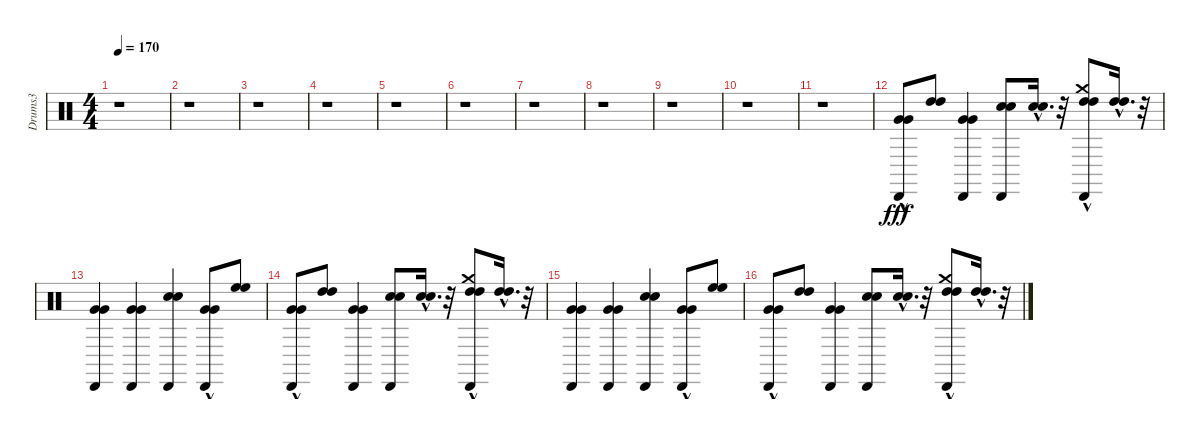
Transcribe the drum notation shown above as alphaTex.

\track ("Drums3" "Drums3") {instrument percussion}
\staff {score}
\articulation defaults
\ts (4 4)
\tempo 170
\clef neutral
\ks c
r.1{dy fff} |
r.1 |
r.1 |
r.1 |
r.1 |
r.1 |
r.1 |
r.1 |
r.1 |
r.1 |
r.1 |
("Very Low Tom (hit)"{hac} "Very Low Tom (hit)"{hac} "Cabasa (hit)").8 ("High Tom (hit)" "High Tom (hit)").8 ("Very Low Tom (hit)" "Very Low Tom (hit)" "Cabasa (hit)").4 ("Electric Snare (hit)" "Electric Snare (hit)" "Cabasa (hit)").8 ("Electric Snare (hit)"{hac} "Electric Snare (hit)"{hac}).16{d} r.32 ("High Tom (hit)"{hac} "High Tom (hit)"{hac} "Crash medium (hit)" "Cabasa (hit)").8 ("High Tom (hit)"{hac} "High Tom (hit)"{hac}).16{d} r.32 |
("Very Low Tom (hit)" "Very Low Tom (hit)" "Cabasa (hit)").4 ("Very Low Tom (hit)" "Very Low Tom (hit)" "Cabasa (hit)").4 ("Electric Snare (hit)" "Electric Snare (hit)" "Cabasa (hit)").4 ("Very Low Tom (hit)"{hac} "Very Low Tom (hit)"{hac} "Cabasa (hit)").8 ("High Floor Tom (hit)" "High Floor Tom (hit)").8 |
("Very Low Tom (hit)"{hac} "Very Low Tom (hit)"{hac} "Cabasa (hit)").8 ("High Tom (hit)" "High Tom (hit)").8 ("Very Low Tom (hit)" "Very Low Tom (hit)" "Cabasa (hit)").4 ("Electric Snare (hit)" "Electric Snare (hit)" "Cabasa (hit)").8 ("Electric Snare (hit)"{hac} "Electric Snare (hit)"{hac}).16{d} r.32 ("High Tom (hit)"{hac} "High Tom (hit)"{hac} "Crash medium (hit)" "Cabasa (hit)").8 ("High Tom (hit)"{hac} "High Tom (hit)"{hac}).16{d} r.32 |
("Very Low Tom (hit)" "Very Low Tom (hit)" "Cabasa (hit)").4 ("Very Low Tom (hit)" "Very Low Tom (hit)" "Cabasa (hit)").4 ("Electric Snare (hit)" "Electric Snare (hit)" "Cabasa (hit)").4 ("Very Low Tom (hit)"{hac} "Very Low Tom (hit)"{hac} "Cabasa (hit)").8 ("High Floor Tom (hit)" "High Floor Tom (hit)").8 |
("Very Low Tom (hit)"{hac} "Very Low Tom (hit)"{hac} "Cabasa (hit)").8 ("High Tom (hit)" "High Tom (hit)").8 ("Very Low Tom (hit)" "Very Low Tom (hit)" "Cabasa (hit)").4 ("Electric Snare (hit)" "Electric Snare (hit)" "Cabasa (hit)").8 ("Electric Snare (hit)"{hac} "Electric Snare (hit)"{hac}).16{d} r.32 ("High Tom (hit)"{hac} "High Tom (hit)"{hac} "Crash medium (hit)" "Cabasa (hit)").8 ("High Tom (hit)"{hac} "High Tom (hit)"{hac}).16{d} r.32
